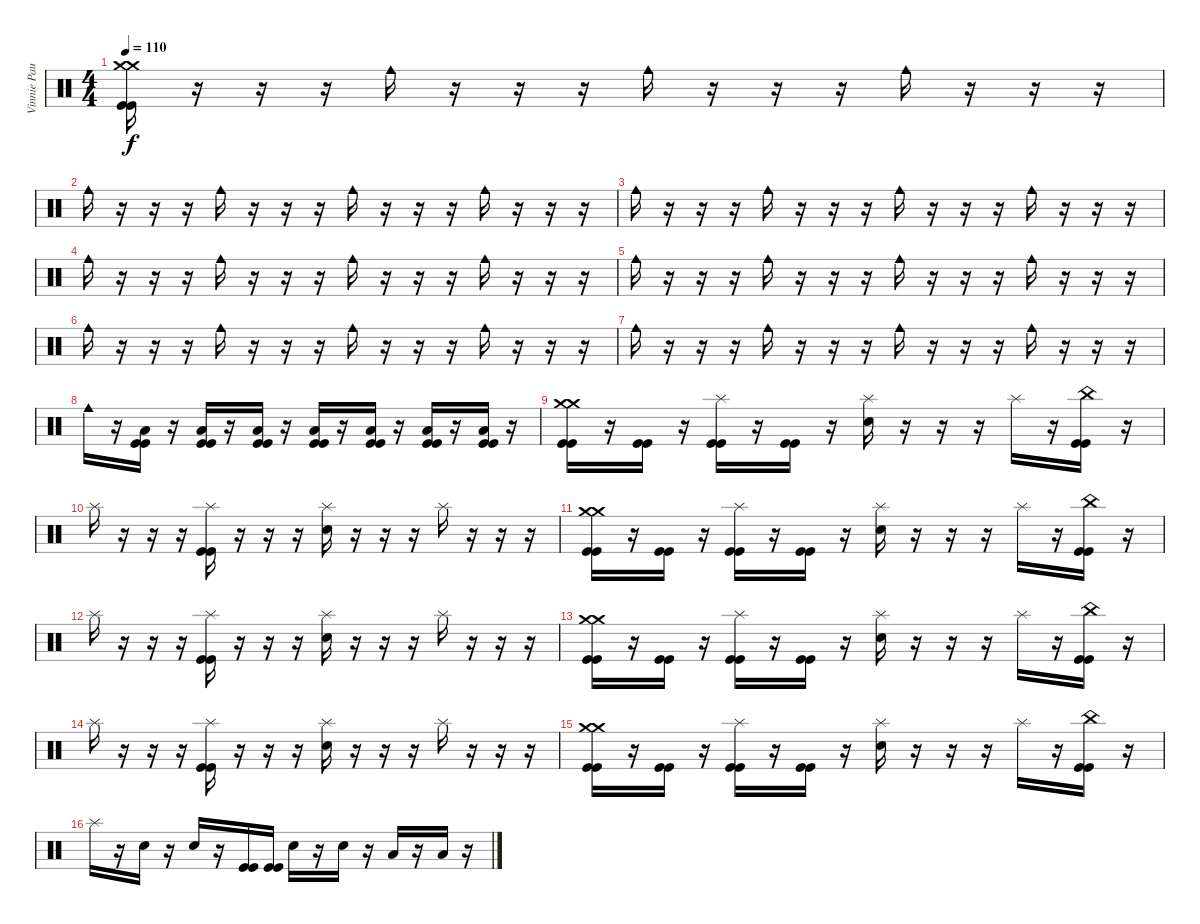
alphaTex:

\track ("Vinnie Paul " "Vinnie Pau") {instrument percussion}
\staff {score}
\articulation defaults
\ts (4 4)
\tempo 110
\clef neutral
\ks c
("Crash medium (hit)" "Crash medium (hit)" "Kick (hit)" "Kick (hit)").16{dy f} r.16 r.16 r.16 "Cowbell medium (hit)".16 r.16 r.16 r.16 "Cowbell medium (hit)".16 r.16 r.16 r.16 "Cowbell medium (hit)".16 r.16 r.16 r.16 |
"Cowbell medium (hit)".16 r.16 r.16 r.16 "Cowbell medium (hit)".16 r.16 r.16 r.16 "Cowbell medium (hit)".16 r.16 r.16 r.16 "Cowbell medium (hit)".16 r.16 r.16 r.16 |
"Cowbell medium (hit)".16 r.16 r.16 r.16 "Cowbell medium (hit)".16 r.16 r.16 r.16 "Cowbell medium (hit)".16 r.16 r.16 r.16 "Cowbell medium (hit)".16 r.16 r.16 r.16 |
"Cowbell medium (hit)".16 r.16 r.16 r.16 "Cowbell medium (hit)".16 r.16 r.16 r.16 "Cowbell medium (hit)".16 r.16 r.16 r.16 "Cowbell medium (hit)".16 r.16 r.16 r.16 |
"Cowbell medium (hit)".16 r.16 r.16 r.16 "Cowbell medium (hit)".16 r.16 r.16 r.16 "Cowbell medium (hit)".16 r.16 r.16 r.16 "Cowbell medium (hit)".16 r.16 r.16 r.16 |
"Cowbell medium (hit)".16 r.16 r.16 r.16 "Cowbell medium (hit)".16 r.16 r.16 r.16 "Cowbell medium (hit)".16 r.16 r.16 r.16 "Cowbell medium (hit)".16 r.16 r.16 r.16 |
"Cowbell medium (hit)".16 r.16 r.16 r.16 "Cowbell medium (hit)".16 r.16 r.16 r.16 "Cowbell medium (hit)".16 r.16 r.16 r.16 "Cowbell medium (hit)".16 r.16 r.16 r.16 |
"Cowbell medium (hit)".16 r.16 ("Low Tom (hit)" "Kick (hit)" "Kick (hit)").16 r.16 ("Low Tom (hit)" "Kick (hit)" "Kick (hit)").16 r.16 ("Low Tom (hit)" "Kick (hit)" "Kick (hit)").16 r.16 ("Low Tom (hit)" "Kick (hit)" "Kick (hit)").16 r.16 ("Low Tom (hit)" "Kick (hit)" "Kick (hit)").16 r.16 ("Low Tom (hit)" "Kick (hit)" "Kick (hit)").16 r.16 ("Low Tom (hit)" "Kick (hit)" "Kick (hit)").16 r.16 |
("Crash medium (hit)" "Crash medium (hit)" "Kick (hit)" "Kick (hit)").16 r.16 ("Kick (hit)" "Kick (hit)").16 r.16 ("Splash (hit)" "Kick (hit)" "Kick (hit)").16 r.16 ("Kick (hit)" "Kick (hit)").16 r.16 ("Splash (hit)" "Snare (hit) 2").16 r.16 r.16 r.16 "Splash (hit)".16 r.16 ("China (hit)" "Kick (hit)" "Kick (hit)").16 r.16 |
"Splash (hit)".16 r.16 r.16 r.16 ("Splash (hit)" "Kick (hit)" "Kick (hit)").16 r.16 r.16 r.16 ("Splash (hit)" "Snare (hit) 2").16 r.16 r.16 r.16 "Splash (hit)".16 r.16 r.16 r.16 |
("Crash medium (hit)" "Crash medium (hit)" "Kick (hit)" "Kick (hit)").16 r.16 ("Kick (hit)" "Kick (hit)").16 r.16 ("Splash (hit)" "Kick (hit)" "Kick (hit)").16 r.16 ("Kick (hit)" "Kick (hit)").16 r.16 ("Splash (hit)" "Snare (hit) 2").16 r.16 r.16 r.16 "Splash (hit)".16 r.16 ("China (hit)" "Kick (hit)" "Kick (hit)").16 r.16 |
"Splash (hit)".16 r.16 r.16 r.16 ("Splash (hit)" "Kick (hit)" "Kick (hit)").16 r.16 r.16 r.16 ("Splash (hit)" "Snare (hit) 2").16 r.16 r.16 r.16 "Splash (hit)".16 r.16 r.16 r.16 |
("Crash medium (hit)" "Crash medium (hit)" "Kick (hit)" "Kick (hit)").16 r.16 ("Kick (hit)" "Kick (hit)").16 r.16 ("Splash (hit)" "Kick (hit)" "Kick (hit)").16 r.16 ("Kick (hit)" "Kick (hit)").16 r.16 ("Splash (hit)" "Snare (hit) 2").16 r.16 r.16 r.16 "Splash (hit)".16 r.16 ("China (hit)" "Kick (hit)" "Kick (hit)").16 r.16 |
"Splash (hit)".16 r.16 r.16 r.16 ("Splash (hit)" "Kick (hit)" "Kick (hit)").16 r.16 r.16 r.16 ("Splash (hit)" "Snare (hit) 2").16 r.16 r.16 r.16 "Splash (hit)".16 r.16 r.16 r.16 |
("Crash medium (hit)" "Crash medium (hit)" "Kick (hit)" "Kick (hit)").16 r.16 ("Kick (hit)" "Kick (hit)").16 r.16 ("Splash (hit)" "Kick (hit)" "Kick (hit)").16 r.16 ("Kick (hit)" "Kick (hit)").16 r.16 ("Splash (hit)" "Snare (hit) 2").16 r.16 r.16 r.16 "Splash (hit)".16 r.16 ("China (hit)" "Kick (hit)" "Kick (hit)").16 r.16 |
"Splash (hit)".16 r.16 "Snare (hit) 2".16 r.16 "Snare (hit) 2".16 r.16 ("Kick (hit)" "Kick (hit)").16 ("Kick (hit)" "Kick (hit)").16 "Snare (hit) 2".16 r.16 "Snare (hit) 2".16 r.16 "Low Tom (hit)".16 r.16 "Low Tom (hit)".16 r.16
